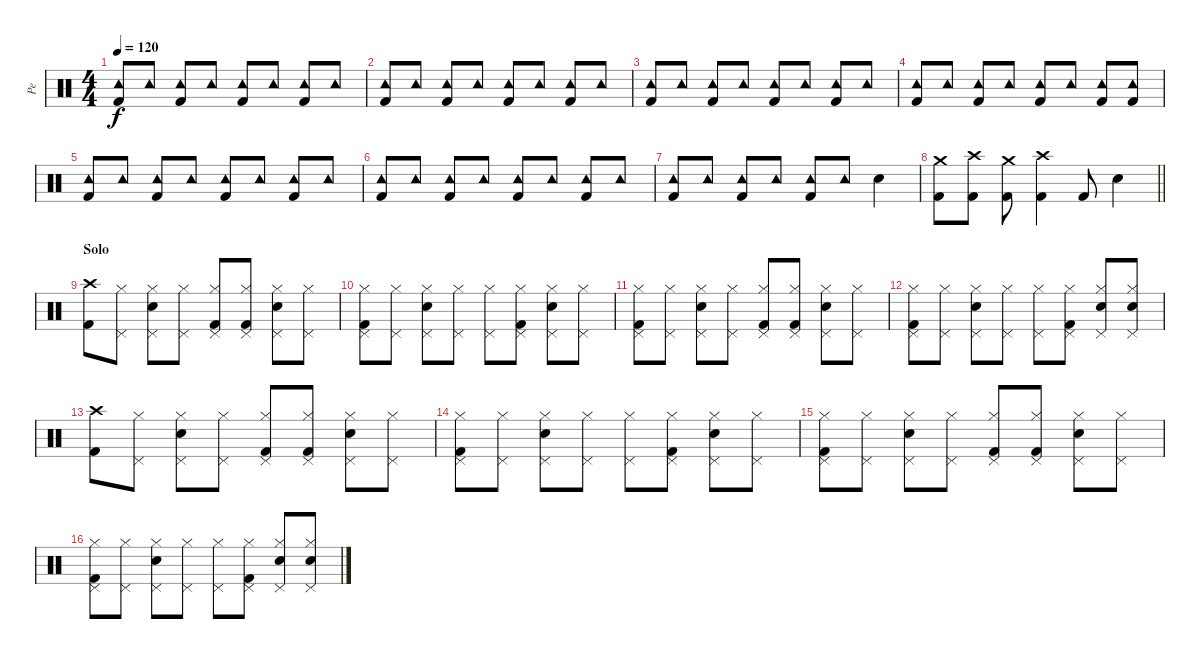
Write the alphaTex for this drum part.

\track ("Pe" "Pe") {instrument percussion}
\staff {score}
\articulation defaults
\ts (4 4)
\tempo 120
\clef neutral
\ks c
("Kick (hit) 2" "Tambourine (hit)").8{dy f} "Tambourine (hit)".8 ("Kick (hit) 2" "Tambourine (hit)").8 "Tambourine (hit)".8 ("Kick (hit) 2" "Tambourine (hit)").8 "Tambourine (hit)".8 ("Kick (hit) 2" "Tambourine (hit)").8 "Tambourine (hit)".8 |
("Kick (hit) 2" "Tambourine (hit)").8 "Tambourine (hit)".8 ("Kick (hit) 2" "Tambourine (hit)").8 "Tambourine (hit)".8 ("Kick (hit) 2" "Tambourine (hit)").8 "Tambourine (hit)".8 ("Kick (hit) 2" "Tambourine (hit)").8 "Tambourine (hit)".8 |
("Kick (hit) 2" "Tambourine (hit)").8 "Tambourine (hit)".8 ("Kick (hit) 2" "Tambourine (hit)").8 "Tambourine (hit)".8 ("Kick (hit) 2" "Tambourine (hit)").8 "Tambourine (hit)".8 ("Kick (hit) 2" "Tambourine (hit)").8 "Tambourine (hit)".8 |
("Kick (hit) 2" "Tambourine (hit)").8 "Tambourine (hit)".8 ("Kick (hit) 2" "Tambourine (hit)").8 "Tambourine (hit)".8 ("Kick (hit) 2" "Tambourine (hit)").8 "Tambourine (hit)".8 ("Kick (hit) 2" "Tambourine (hit)").8 ("Kick (hit) 2" "Tambourine (hit)").8 |
("Kick (hit) 2" "Tambourine (hit)").8 "Tambourine (hit)".8 ("Kick (hit) 2" "Tambourine (hit)").8 "Tambourine (hit)".8 ("Kick (hit) 2" "Tambourine (hit)").8 "Tambourine (hit)".8 ("Kick (hit) 2" "Tambourine (hit)").8 "Tambourine (hit)".8 |
("Kick (hit) 2" "Tambourine (hit)").8 "Tambourine (hit)".8 ("Kick (hit) 2" "Tambourine (hit)").8 "Tambourine (hit)".8 ("Kick (hit) 2" "Tambourine (hit)").8 "Tambourine (hit)".8 ("Kick (hit) 2" "Tambourine (hit)").8 "Tambourine (hit)".8 |
("Kick (hit) 2" "Tambourine (hit)").8 "Tambourine (hit)".8 ("Kick (hit) 2" "Tambourine (hit)").8 "Tambourine (hit)".8 ("Kick (hit) 2" "Tambourine (hit)").8 "Tambourine (hit)".8 "Snare (hit) 2".4 |
\barLineRight lightlight
("Kick (hit) 2" "Crash medium (hit)").8 ("Kick (hit) 2" "Crash high (hit)").8 ("Kick (hit) 2" "Crash medium (hit)").8 ("Kick (hit) 2" "Crash high (hit)").4 "Kick (hit) 2".8 "Snare (hit) 2".4 |
\section ("" "Solo")
("Kick (hit) 2" "Crash high (hit)").8 ("Hi-Hat (closed)" "Pedal Hi-Hat (hit)").8 ("Snare (hit) 2" "Hi-Hat (closed)" "Pedal Hi-Hat (hit)").8 ("Hi-Hat (closed)" "Pedal Hi-Hat (hit)").8 ("Kick (hit) 2" "Hi-Hat (closed)" "Pedal Hi-Hat (hit)").8 ("Kick (hit) 2" "Hi-Hat (closed)" "Pedal Hi-Hat (hit)").8 ("Snare (hit) 2" "Hi-Hat (closed)" "Pedal Hi-Hat (hit)").8 ("Hi-Hat (closed)" "Pedal Hi-Hat (hit)").8 |
("Kick (hit) 2" "Hi-Hat (closed)" "Pedal Hi-Hat (hit)").8 ("Hi-Hat (closed)" "Pedal Hi-Hat (hit)").8 ("Snare (hit) 2" "Hi-Hat (closed)" "Pedal Hi-Hat (hit)").8 ("Hi-Hat (closed)" "Pedal Hi-Hat (hit)").8 ("Hi-Hat (closed)" "Pedal Hi-Hat (hit)").8 ("Kick (hit) 2" "Hi-Hat (closed)" "Pedal Hi-Hat (hit)").8 ("Snare (hit) 2" "Hi-Hat (closed)" "Pedal Hi-Hat (hit)").8 ("Hi-Hat (closed)" "Pedal Hi-Hat (hit)").8 |
("Kick (hit) 2" "Hi-Hat (closed)" "Pedal Hi-Hat (hit)").8 ("Hi-Hat (closed)" "Pedal Hi-Hat (hit)").8 ("Snare (hit) 2" "Hi-Hat (closed)" "Pedal Hi-Hat (hit)").8 ("Hi-Hat (closed)" "Pedal Hi-Hat (hit)").8 ("Kick (hit) 2" "Hi-Hat (closed)" "Pedal Hi-Hat (hit)").8 ("Kick (hit) 2" "Hi-Hat (closed)" "Pedal Hi-Hat (hit)").8 ("Snare (hit) 2" "Hi-Hat (closed)" "Pedal Hi-Hat (hit)").8 ("Hi-Hat (closed)" "Pedal Hi-Hat (hit)").8 |
("Kick (hit) 2" "Hi-Hat (closed)" "Pedal Hi-Hat (hit)").8 ("Hi-Hat (closed)" "Pedal Hi-Hat (hit)").8 ("Snare (hit) 2" "Hi-Hat (closed)" "Pedal Hi-Hat (hit)").8 ("Hi-Hat (closed)" "Pedal Hi-Hat (hit)").8 ("Hi-Hat (closed)" "Pedal Hi-Hat (hit)").8 ("Kick (hit) 2" "Hi-Hat (closed)" "Pedal Hi-Hat (hit)").8 ("Snare (hit) 2" "Hi-Hat (closed)" "Pedal Hi-Hat (hit)").8 ("Snare (hit) 2" "Hi-Hat (closed)" "Pedal Hi-Hat (hit)").8 |
("Kick (hit) 2" "Crash high (hit)").8 ("Hi-Hat (closed)" "Pedal Hi-Hat (hit)").8 ("Snare (hit) 2" "Hi-Hat (closed)" "Pedal Hi-Hat (hit)").8 ("Hi-Hat (closed)" "Pedal Hi-Hat (hit)").8 ("Kick (hit) 2" "Hi-Hat (closed)" "Pedal Hi-Hat (hit)").8 ("Kick (hit) 2" "Hi-Hat (closed)" "Pedal Hi-Hat (hit)").8 ("Snare (hit) 2" "Hi-Hat (closed)" "Pedal Hi-Hat (hit)").8 ("Hi-Hat (closed)" "Pedal Hi-Hat (hit)").8 |
("Kick (hit) 2" "Hi-Hat (closed)" "Pedal Hi-Hat (hit)").8 ("Hi-Hat (closed)" "Pedal Hi-Hat (hit)").8 ("Snare (hit) 2" "Hi-Hat (closed)" "Pedal Hi-Hat (hit)").8 ("Hi-Hat (closed)" "Pedal Hi-Hat (hit)").8 ("Hi-Hat (closed)" "Pedal Hi-Hat (hit)").8 ("Kick (hit) 2" "Hi-Hat (closed)" "Pedal Hi-Hat (hit)").8 ("Snare (hit) 2" "Hi-Hat (closed)" "Pedal Hi-Hat (hit)").8 ("Hi-Hat (closed)" "Pedal Hi-Hat (hit)").8 |
("Kick (hit) 2" "Hi-Hat (closed)" "Pedal Hi-Hat (hit)").8 ("Hi-Hat (closed)" "Pedal Hi-Hat (hit)").8 ("Snare (hit) 2" "Hi-Hat (closed)" "Pedal Hi-Hat (hit)").8 ("Hi-Hat (closed)" "Pedal Hi-Hat (hit)").8 ("Kick (hit) 2" "Hi-Hat (closed)" "Pedal Hi-Hat (hit)").8 ("Kick (hit) 2" "Hi-Hat (closed)" "Pedal Hi-Hat (hit)").8 ("Snare (hit) 2" "Hi-Hat (closed)" "Pedal Hi-Hat (hit)").8 ("Hi-Hat (closed)" "Pedal Hi-Hat (hit)").8 |
("Kick (hit) 2" "Hi-Hat (closed)" "Pedal Hi-Hat (hit)").8 ("Hi-Hat (closed)" "Pedal Hi-Hat (hit)").8 ("Snare (hit) 2" "Hi-Hat (closed)" "Pedal Hi-Hat (hit)").8 ("Hi-Hat (closed)" "Pedal Hi-Hat (hit)").8 ("Hi-Hat (closed)" "Pedal Hi-Hat (hit)").8 ("Kick (hit) 2" "Hi-Hat (closed)" "Pedal Hi-Hat (hit)").8 ("Snare (hit) 2" "Hi-Hat (closed)" "Pedal Hi-Hat (hit)").8 ("Snare (hit) 2" "Hi-Hat (closed)" "Pedal Hi-Hat (hit)").8
